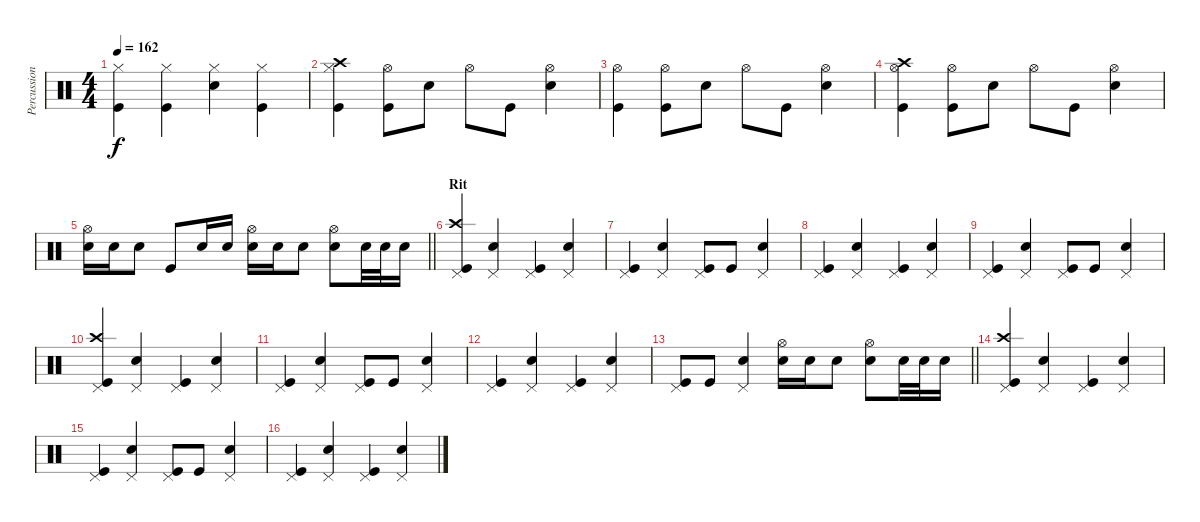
\track ("Percussioni" "Percussion") {instrument percussion}
\staff {score}
\articulation defaults
\ts (4 4)
\tempo 162
\clef neutral
\ks c
("Kick (hit)" "Hi-Hat (closed)").4{dy f} ("Kick (hit)" "Hi-Hat (closed)").4 ("Snare (hit) 2" "Hi-Hat (closed)").4 ("Kick (hit)" "Hi-Hat (closed)").4 |
("Kick (hit)" "Hi-Hat (closed)" "Crash high (hit)").4 ("Kick (hit)" "Hi-Hat (open)").8 "Snare (hit) 2".8 "Hi-Hat (open)".8 "Kick (hit)".8 ("Snare (hit) 2" "Hi-Hat (open)").4 |
("Kick (hit)" "Hi-Hat (open)").4 ("Kick (hit)" "Hi-Hat (open)").8 "Snare (hit) 2".8 "Hi-Hat (open)".8 "Kick (hit)".8 ("Snare (hit) 2" "Hi-Hat (open)").4 |
("Kick (hit)" "Hi-Hat (open)" "Crash high (hit)").4 ("Kick (hit)" "Hi-Hat (open)").8 "Snare (hit) 2".8 "Hi-Hat (open)".8 "Kick (hit)".8 ("Snare (hit) 2" "Hi-Hat (open)").4 |
\barLineRight lightlight
("Snare (hit) 2" "Hi-Hat (open)").16 "Snare (hit) 2".16 "Snare (hit) 2".8 "Kick (hit)".8 "Snare (hit) 2".16 "Snare (hit) 2".16 ("Snare (hit) 2" "Hi-Hat (open)").16 "Snare (hit) 2".16 "Snare (hit) 2".8 ("Snare (hit) 2" "Hi-Hat (open)").8 "Snare (hit) 2".32 "Snare (hit) 2".32 "Snare (hit) 2".16 |
\section ("" "Rit")
("Pedal Hi-Hat (hit)" "Kick (hit)" "Crash high (hit)").4 ("Pedal Hi-Hat (hit)" "Snare (hit) 2").4 ("Pedal Hi-Hat (hit)" "Kick (hit)").4 ("Pedal Hi-Hat (hit)" "Snare (hit) 2").4 |
("Pedal Hi-Hat (hit)" "Kick (hit)").4 ("Pedal Hi-Hat (hit)" "Snare (hit) 2").4 ("Pedal Hi-Hat (hit)" "Kick (hit)").8 "Kick (hit)".8 ("Pedal Hi-Hat (hit)" "Snare (hit) 2").4 |
("Pedal Hi-Hat (hit)" "Kick (hit)").4 ("Pedal Hi-Hat (hit)" "Snare (hit) 2").4 ("Pedal Hi-Hat (hit)" "Kick (hit)").4 ("Pedal Hi-Hat (hit)" "Snare (hit) 2").4 |
("Pedal Hi-Hat (hit)" "Kick (hit)").4 ("Pedal Hi-Hat (hit)" "Snare (hit) 2").4 ("Pedal Hi-Hat (hit)" "Kick (hit)").8 "Kick (hit)".8 ("Pedal Hi-Hat (hit)" "Snare (hit) 2").4 |
("Pedal Hi-Hat (hit)" "Kick (hit)" "Crash high (hit)").4 ("Pedal Hi-Hat (hit)" "Snare (hit) 2").4 ("Pedal Hi-Hat (hit)" "Kick (hit)").4 ("Pedal Hi-Hat (hit)" "Snare (hit) 2").4 |
("Pedal Hi-Hat (hit)" "Kick (hit)").4 ("Pedal Hi-Hat (hit)" "Snare (hit) 2").4 ("Pedal Hi-Hat (hit)" "Kick (hit)").8 "Kick (hit)".8 ("Pedal Hi-Hat (hit)" "Snare (hit) 2").4 |
("Pedal Hi-Hat (hit)" "Kick (hit)").4 ("Pedal Hi-Hat (hit)" "Snare (hit) 2").4 ("Pedal Hi-Hat (hit)" "Kick (hit)").4 ("Pedal Hi-Hat (hit)" "Snare (hit) 2").4 |
\barLineRight lightlight
("Pedal Hi-Hat (hit)" "Kick (hit)").8 "Kick (hit)".8 ("Pedal Hi-Hat (hit)" "Snare (hit) 2").4 ("Snare (hit) 2" "Hi-Hat (open)").16 "Snare (hit) 2".16 "Snare (hit) 2".8 ("Snare (hit) 2" "Hi-Hat (open)").8 "Snare (hit) 2".32 "Snare (hit) 2".32 "Snare (hit) 2".16 |
("Pedal Hi-Hat (hit)" "Kick (hit)" "Crash high (hit)").4 ("Pedal Hi-Hat (hit)" "Snare (hit) 2").4 ("Pedal Hi-Hat (hit)" "Kick (hit)").4 ("Pedal Hi-Hat (hit)" "Snare (hit) 2").4 |
("Pedal Hi-Hat (hit)" "Kick (hit)").4 ("Pedal Hi-Hat (hit)" "Snare (hit) 2").4 ("Pedal Hi-Hat (hit)" "Kick (hit)").8 "Kick (hit)".8 ("Pedal Hi-Hat (hit)" "Snare (hit) 2").4 |
("Pedal Hi-Hat (hit)" "Kick (hit)").4 ("Pedal Hi-Hat (hit)" "Snare (hit) 2").4 ("Pedal Hi-Hat (hit)" "Kick (hit)").4 ("Pedal Hi-Hat (hit)" "Snare (hit) 2").4
